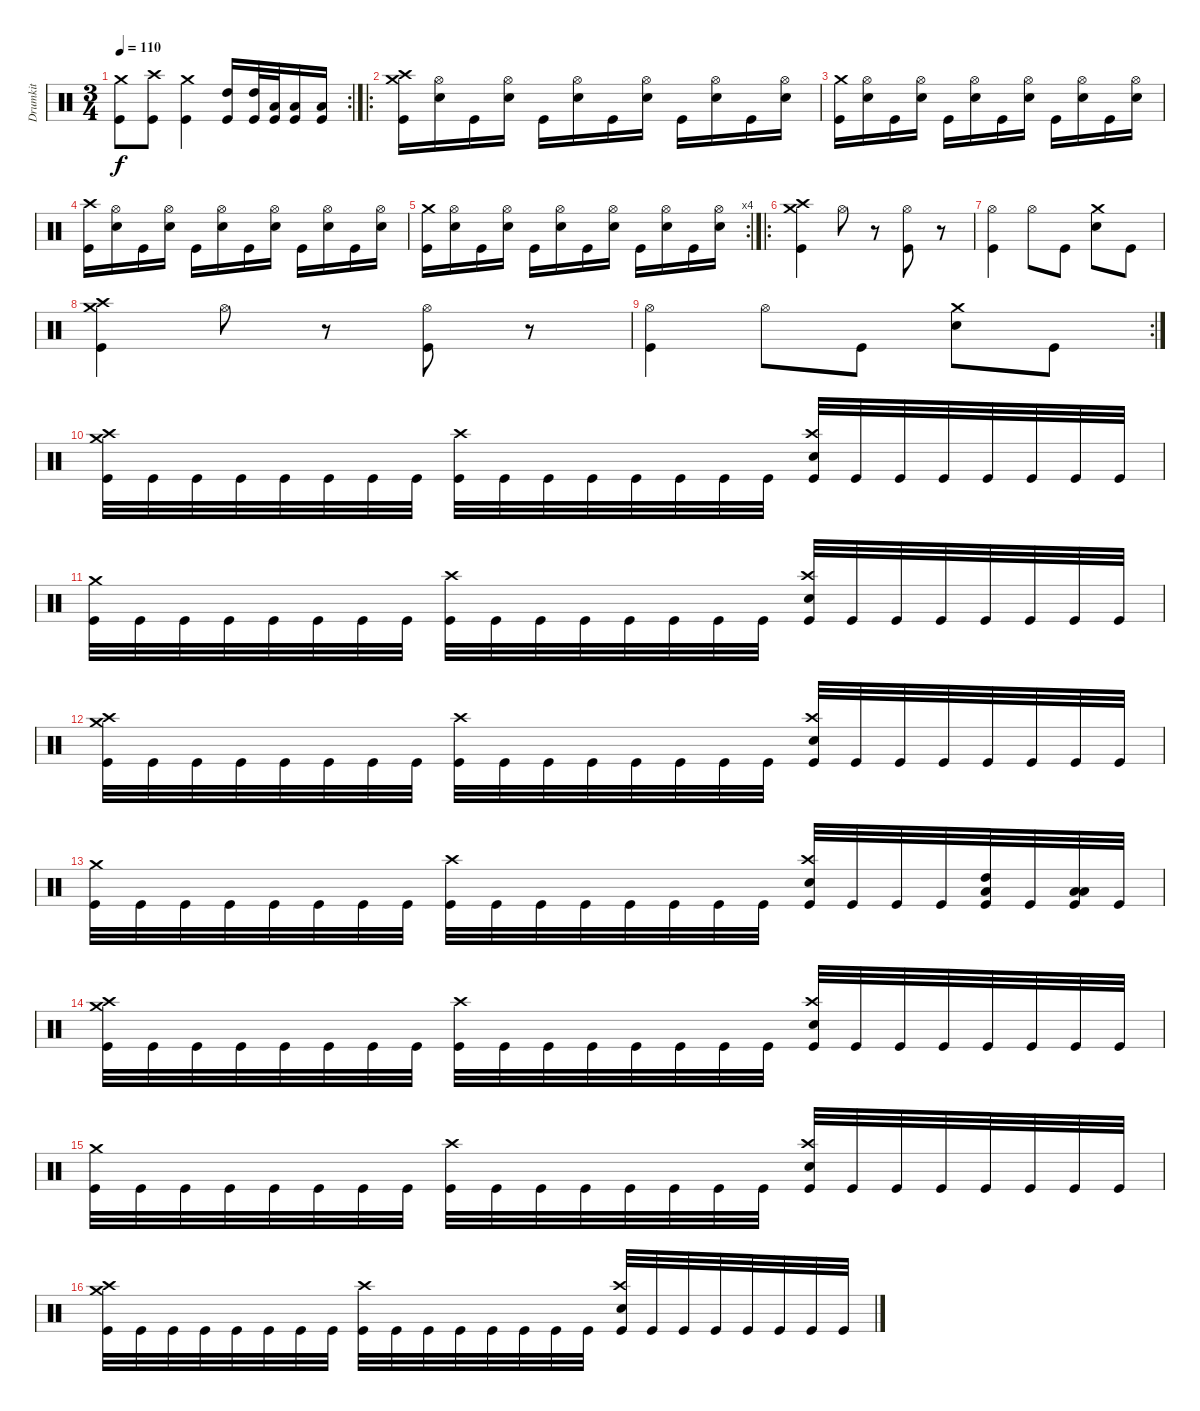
\track ("Drumkit" "Drumkit") {instrument percussion}
\staff {score}
\articulation defaults
\rc 2
\ts (3 4)
\tempo 110
\clef neutral
\ks c
("Crash medium (hit)" "Kick (hit)").8{dy f} ("Crash high (hit)" "Kick (hit)").8 ("Crash medium (hit)" "Kick (hit)").4 ("High Tom (hit)" "Kick (hit)").16 ("High Tom (hit)" "Kick (hit)").32 ("Low Tom (hit)" "Kick (hit)").32 ("Low Tom (hit)" "Kick (hit)").16 ("Low Tom (hit)" "Kick (hit)").16 |
\ro
("Crash high (hit)" "Crash medium (hit)" "Kick (hit)").16 ("Hi-Hat (open)" "Snare (hit) 2").16 "Kick (hit)".16 ("Hi-Hat (open)" "Snare (hit) 2").16 "Kick (hit)".16 ("Hi-Hat (open)" "Snare (hit) 2").16 "Kick (hit)".16 ("Hi-Hat (open)" "Snare (hit) 2").16 "Kick (hit)".16 ("Hi-Hat (open)" "Snare (hit) 2").16 "Kick (hit)".16 ("Hi-Hat (open)" "Snare (hit) 2").16 |
("Crash medium (hit)" "Kick (hit)").16 ("Hi-Hat (open)" "Snare (hit) 2").16 "Kick (hit)".16 ("Hi-Hat (open)" "Snare (hit) 2").16 "Kick (hit)".16 ("Hi-Hat (open)" "Snare (hit) 2").16 "Kick (hit)".16 ("Hi-Hat (open)" "Snare (hit) 2").16 "Kick (hit)".16 ("Hi-Hat (open)" "Snare (hit) 2").16 "Kick (hit)".16 ("Hi-Hat (open)" "Snare (hit) 2").16 |
("Crash high (hit)" "Kick (hit)").16 ("Hi-Hat (open)" "Snare (hit) 2").16 "Kick (hit)".16 ("Hi-Hat (open)" "Snare (hit) 2").16 "Kick (hit)".16 ("Hi-Hat (open)" "Snare (hit) 2").16 "Kick (hit)".16 ("Hi-Hat (open)" "Snare (hit) 2").16 "Kick (hit)".16 ("Hi-Hat (open)" "Snare (hit) 2").16 "Kick (hit)".16 ("Hi-Hat (open)" "Snare (hit) 2").16 |
\rc 4
("Crash medium (hit)" "Kick (hit)").16 ("Hi-Hat (open)" "Snare (hit) 2").16 "Kick (hit)".16 ("Hi-Hat (open)" "Snare (hit) 2").16 "Kick (hit)".16 ("Hi-Hat (open)" "Snare (hit) 2").16 "Kick (hit)".16 ("Hi-Hat (open)" "Snare (hit) 2").16 "Kick (hit)".16 ("Hi-Hat (open)" "Snare (hit) 2").16 "Kick (hit)".16 ("Hi-Hat (open)" "Snare (hit) 2").16 |
\ro
("Crash high (hit)" "Crash medium (hit)" "Kick (hit)").4 "Hi-Hat (open)".8 r.8 ("Hi-Hat (open)" "Kick (hit)").8 r.8 |
("Hi-Hat (open)" "Kick (hit)").4 "Hi-Hat (open)".8 "Kick (hit)".8 ("Crash medium (hit)" "Snare (hit) 2").8 "Kick (hit)".8 |
("Crash high (hit)" "Crash medium (hit)" "Kick (hit)").4 "Hi-Hat (open)".8 r.8 ("Hi-Hat (open)" "Kick (hit)").8 r.8 |
\rc 2
("Hi-Hat (open)" "Kick (hit)").4 "Hi-Hat (open)".8 "Kick (hit)".8 ("Crash medium (hit)" "Snare (hit) 2").8 "Kick (hit)".8 |
("Crash high (hit)" "Crash medium (hit)" "Kick (hit)").32 "Kick (hit)".32 "Kick (hit)".32 "Kick (hit)".32 "Kick (hit)".32 "Kick (hit)".32 "Kick (hit)".32 "Kick (hit)".32 ("Crash high (hit)" "Kick (hit)").32 "Kick (hit)".32 "Kick (hit)".32 "Kick (hit)".32 "Kick (hit)".32 "Kick (hit)".32 "Kick (hit)".32 "Kick (hit)".32 ("Crash high (hit)" "Snare (hit) 2" "Kick (hit)").32 "Kick (hit)".32 "Kick (hit)".32 "Kick (hit)".32 "Kick (hit)".32 "Kick (hit)".32 "Kick (hit)".32 "Kick (hit)".32 |
("Crash medium (hit)" "Kick (hit)").32 "Kick (hit)".32 "Kick (hit)".32 "Kick (hit)".32 "Kick (hit)".32 "Kick (hit)".32 "Kick (hit)".32 "Kick (hit)".32 ("Crash high (hit)" "Kick (hit)").32 "Kick (hit)".32 "Kick (hit)".32 "Kick (hit)".32 "Kick (hit)".32 "Kick (hit)".32 "Kick (hit)".32 "Kick (hit)".32 ("Crash high (hit)" "Snare (hit) 2" "Kick (hit)").32 "Kick (hit)".32 "Kick (hit)".32 "Kick (hit)".32 "Kick (hit)".32 "Kick (hit)".32 "Kick (hit)".32 "Kick (hit)".32 |
("Crash high (hit)" "Crash medium (hit)" "Kick (hit)").32 "Kick (hit)".32 "Kick (hit)".32 "Kick (hit)".32 "Kick (hit)".32 "Kick (hit)".32 "Kick (hit)".32 "Kick (hit)".32 ("Crash high (hit)" "Kick (hit)").32 "Kick (hit)".32 "Kick (hit)".32 "Kick (hit)".32 "Kick (hit)".32 "Kick (hit)".32 "Kick (hit)".32 "Kick (hit)".32 ("Crash high (hit)" "Snare (hit) 2" "Kick (hit)").32 "Kick (hit)".32 "Kick (hit)".32 "Kick (hit)".32 "Kick (hit)".32 "Kick (hit)".32 "Kick (hit)".32 "Kick (hit)".32 |
("Crash medium (hit)" "Kick (hit)").32 "Kick (hit)".32 "Kick (hit)".32 "Kick (hit)".32 "Kick (hit)".32 "Kick (hit)".32 "Kick (hit)".32 "Kick (hit)".32 ("Crash high (hit)" "Kick (hit)").32 "Kick (hit)".32 "Kick (hit)".32 "Kick (hit)".32 "Kick (hit)".32 "Kick (hit)".32 "Kick (hit)".32 "Kick (hit)".32 ("Crash high (hit)" "Snare (hit) 2" "Kick (hit)").32 "Kick (hit)".32 "Kick (hit)".32 "Kick (hit)".32 ("Low Tom (hit)" "High Tom (hit)" "Kick (hit)").32 "Kick (hit)".32 ("Low Tom (hit)" "Low Floor Tom (hit)" "Kick (hit)").32 "Kick (hit)".32 |
("Crash high (hit)" "Crash medium (hit)" "Kick (hit)").32 "Kick (hit)".32 "Kick (hit)".32 "Kick (hit)".32 "Kick (hit)".32 "Kick (hit)".32 "Kick (hit)".32 "Kick (hit)".32 ("Crash high (hit)" "Kick (hit)").32 "Kick (hit)".32 "Kick (hit)".32 "Kick (hit)".32 "Kick (hit)".32 "Kick (hit)".32 "Kick (hit)".32 "Kick (hit)".32 ("Crash high (hit)" "Snare (hit) 2" "Kick (hit)").32 "Kick (hit)".32 "Kick (hit)".32 "Kick (hit)".32 "Kick (hit)".32 "Kick (hit)".32 "Kick (hit)".32 "Kick (hit)".32 |
("Crash medium (hit)" "Kick (hit)").32 "Kick (hit)".32 "Kick (hit)".32 "Kick (hit)".32 "Kick (hit)".32 "Kick (hit)".32 "Kick (hit)".32 "Kick (hit)".32 ("Crash high (hit)" "Kick (hit)").32 "Kick (hit)".32 "Kick (hit)".32 "Kick (hit)".32 "Kick (hit)".32 "Kick (hit)".32 "Kick (hit)".32 "Kick (hit)".32 ("Crash high (hit)" "Snare (hit) 2" "Kick (hit)").32 "Kick (hit)".32 "Kick (hit)".32 "Kick (hit)".32 "Kick (hit)".32 "Kick (hit)".32 "Kick (hit)".32 "Kick (hit)".32 |
("Crash high (hit)" "Crash medium (hit)" "Kick (hit)").32 "Kick (hit)".32 "Kick (hit)".32 "Kick (hit)".32 "Kick (hit)".32 "Kick (hit)".32 "Kick (hit)".32 "Kick (hit)".32 ("Crash high (hit)" "Kick (hit)").32 "Kick (hit)".32 "Kick (hit)".32 "Kick (hit)".32 "Kick (hit)".32 "Kick (hit)".32 "Kick (hit)".32 "Kick (hit)".32 ("Crash high (hit)" "Snare (hit) 2" "Kick (hit)").32 "Kick (hit)".32 "Kick (hit)".32 "Kick (hit)".32 "Kick (hit)".32 "Kick (hit)".32 "Kick (hit)".32 "Kick (hit)".32
